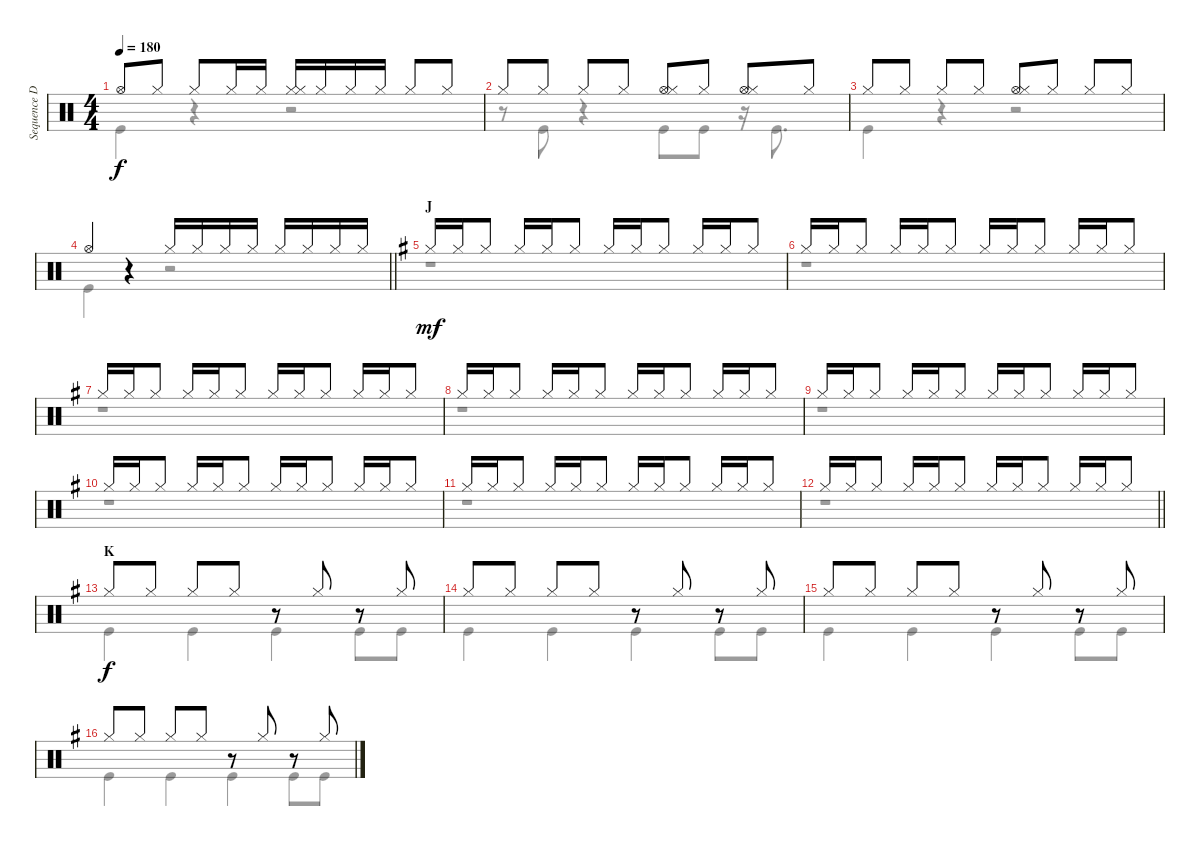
\track ("Sequence Drums" "Sequence D") {instrument percussion}
\staff {score}
\articulation defaults
\voice
\ts (4 4)
\tempo 180
\clef neutral
\ks c "Hi-Hat (open)".8{dy f} "Hi-Hat (closed)".8 "Hi-Hat (closed)".8 "Hi-Hat (closed)".16 "Hi-Hat (closed)".16
("Hi-Hat (closed)" "Hi-Hat (closed)").16 "Hi-Hat (closed)".16 "Hi-Hat (closed)".16 "Hi-Hat (closed)".16 "Hi-Hat (closed)".8 "Hi-Hat (closed)".8 |
"Hi-Hat (closed)".8 "Hi-Hat (closed)".8 "Hi-Hat (closed)".8 "Hi-Hat (closed)".8 ("Hi-Hat (open)" "Hi-Hat (closed)").8 "Hi-Hat (closed)".8 ("Hi-Hat (open)" "Hi-Hat (closed)").8 "Hi-Hat (closed)".8 |
"Hi-Hat (closed)".8 "Hi-Hat (closed)".8 "Hi-Hat (closed)".8 "Hi-Hat (closed)".8 ("Hi-Hat (open)" "Hi-Hat (closed)").8 "Hi-Hat (closed)".8 "Hi-Hat (closed)".8 "Hi-Hat (closed)".8 |
\barLineRight lightlight "Hi-Hat (open)".4
r.4 "Hi-Hat (closed)".16 "Hi-Hat (closed)".16 "Hi-Hat (closed)".16 "Hi-Hat (closed)".16 "Hi-Hat (closed)".16 "Hi-Hat (closed)".16 "Hi-Hat (closed)".16 "Hi-Hat (closed)".16 |
\section ("" "J")
\ks g "Hi-Hat (closed)".16{dy mf} "Hi-Hat (closed)".16 "Hi-Hat (closed)".8 "Hi-Hat (closed)".16 "Hi-Hat (closed)".16 "Hi-Hat (closed)".8 "Hi-Hat (closed)".16 "Hi-Hat (closed)".16 "Hi-Hat (closed)".8 "Hi-Hat (closed)".16 "Hi-Hat (closed)".16 "Hi-Hat (closed)".8
|
"Hi-Hat (closed)".16 "Hi-Hat (closed)".16 "Hi-Hat (closed)".8 "Hi-Hat (closed)".16 "Hi-Hat (closed)".16 "Hi-Hat (closed)".8 "Hi-Hat (closed)".16 "Hi-Hat (closed)".16 "Hi-Hat (closed)".8 "Hi-Hat (closed)".16 "Hi-Hat (closed)".16 "Hi-Hat (closed)".8 |
"Hi-Hat (closed)".16 "Hi-Hat (closed)".16 "Hi-Hat (closed)".8 "Hi-Hat (closed)".16 "Hi-Hat (closed)".16 "Hi-Hat (closed)".8 "Hi-Hat (closed)".16 "Hi-Hat (closed)".16 "Hi-Hat (closed)".8 "Hi-Hat (closed)".16 "Hi-Hat (closed)".16 "Hi-Hat (closed)".8 |
"Hi-Hat (closed)".16 "Hi-Hat (closed)".16 "Hi-Hat (closed)".8 "Hi-Hat (closed)".16 "Hi-Hat (closed)".16 "Hi-Hat (closed)".8 "Hi-Hat (closed)".16 "Hi-Hat (closed)".16 "Hi-Hat (closed)".8 "Hi-Hat (closed)".16 "Hi-Hat (closed)".16 "Hi-Hat (closed)".8 |
"Hi-Hat (closed)".16 "Hi-Hat (closed)".16 "Hi-Hat (closed)".8 "Hi-Hat (closed)".16 "Hi-Hat (closed)".16 "Hi-Hat (closed)".8 "Hi-Hat (closed)".16 "Hi-Hat (closed)".16 "Hi-Hat (closed)".8 "Hi-Hat (closed)".16 "Hi-Hat (closed)".16 "Hi-Hat (closed)".8 |
"Hi-Hat (closed)".16 "Hi-Hat (closed)".16 "Hi-Hat (closed)".8 "Hi-Hat (closed)".16 "Hi-Hat (closed)".16 "Hi-Hat (closed)".8 "Hi-Hat (closed)".16 "Hi-Hat (closed)".16 "Hi-Hat (closed)".8 "Hi-Hat (closed)".16 "Hi-Hat (closed)".16 "Hi-Hat (closed)".8 |
"Hi-Hat (closed)".16 "Hi-Hat (closed)".16 "Hi-Hat (closed)".8 "Hi-Hat (closed)".16 "Hi-Hat (closed)".16 "Hi-Hat (closed)".8 "Hi-Hat (closed)".16 "Hi-Hat (closed)".16 "Hi-Hat (closed)".8 "Hi-Hat (closed)".16 "Hi-Hat (closed)".16 "Hi-Hat (closed)".8 |
\barLineRight lightlight "Hi-Hat (closed)".16 "Hi-Hat (closed)".16 "Hi-Hat (closed)".8 "Hi-Hat (closed)".16 "Hi-Hat (closed)".16 "Hi-Hat (closed)".8 "Hi-Hat (closed)".16 "Hi-Hat (closed)".16 "Hi-Hat (closed)".8 "Hi-Hat (closed)".16 "Hi-Hat (closed)".16 "Hi-Hat (closed)".8
|
\section ("" "K")
"Hi-Hat (closed)".8{dy f} "Hi-Hat (closed)".8 "Hi-Hat (closed)".8 "Hi-Hat (closed)".8 r.8 "Hi-Hat (closed)".8 r.8 "Hi-Hat (closed)".8 |
"Hi-Hat (closed)".8 "Hi-Hat (closed)".8 "Hi-Hat (closed)".8 "Hi-Hat (closed)".8 r.8 "Hi-Hat (closed)".8 r.8 "Hi-Hat (closed)".8 |
"Hi-Hat (closed)".8 "Hi-Hat (closed)".8 "Hi-Hat (closed)".8 "Hi-Hat (closed)".8 r.8 "Hi-Hat (closed)".8 r.8 "Hi-Hat (closed)".8 |
"Hi-Hat (closed)".8 "Hi-Hat (closed)".8 "Hi-Hat (closed)".8 "Hi-Hat (closed)".8 r.8 "Hi-Hat (closed)".8 r.8 "Hi-Hat (closed)".8
\voice
\clef neutral
\ottava regular
\simile none
\ks c "Kick (hit)".4{dy f}
r.4 r.2 |
r.8 "Kick (hit)".8 r.4 "Kick (hit)".8 "Kick (hit)".8 r.16 "Kick (hit)".8{d} |
"Kick (hit)".4 r.4 r.2 |
\barLineRight lightlight "Kick (hit)".4
r.4 r.2 |
\ks g
r.1 |
r.1 |
r.1 |
r.1 |
r.1 |
r.1 |
r.1 |
\barLineRight lightlight
r.1 |
"Kick (hit)".4 "Kick (hit)".4 "Kick (hit)".4 "Kick (hit)".8 "Kick (hit)".8 |
"Kick (hit)".4 "Kick (hit)".4 "Kick (hit)".4 "Kick (hit)".8 "Kick (hit)".8 |
"Kick (hit)".4 "Kick (hit)".4 "Kick (hit)".4 "Kick (hit)".8 "Kick (hit)".8 |
"Kick (hit)".4 "Kick (hit)".4 "Kick (hit)".4 "Kick (hit)".8 "Kick (hit)".8
